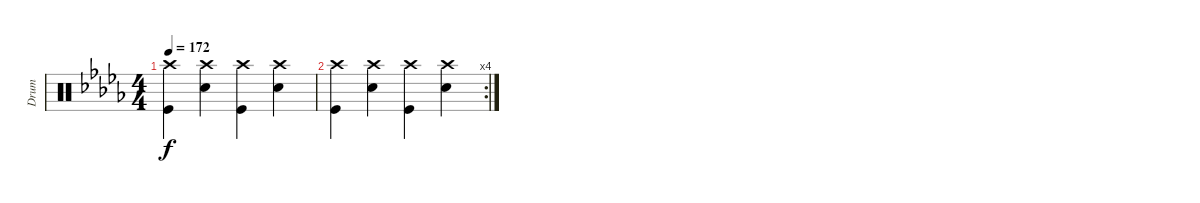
\track ("Drum" "Drum") {instrument percussion}
\staff {score}
\articulation defaults
\ts (4 4)
\tempo 172
\clef neutral
\ks db
("Crash high (hit)" "Kick (hit)").4{dy f} ("Crash high (hit)" "Snare (hit) 2").4 ("Crash high (hit)" "Kick (hit)").4 ("Crash high (hit)" "Snare (hit) 2").4 |
\rc 4
("Crash high (hit)" "Kick (hit)").4 ("Crash high (hit)" "Snare (hit) 2").4 ("Crash high (hit)" "Kick (hit)").4 ("Crash high (hit)" "Snare (hit) 2").4
